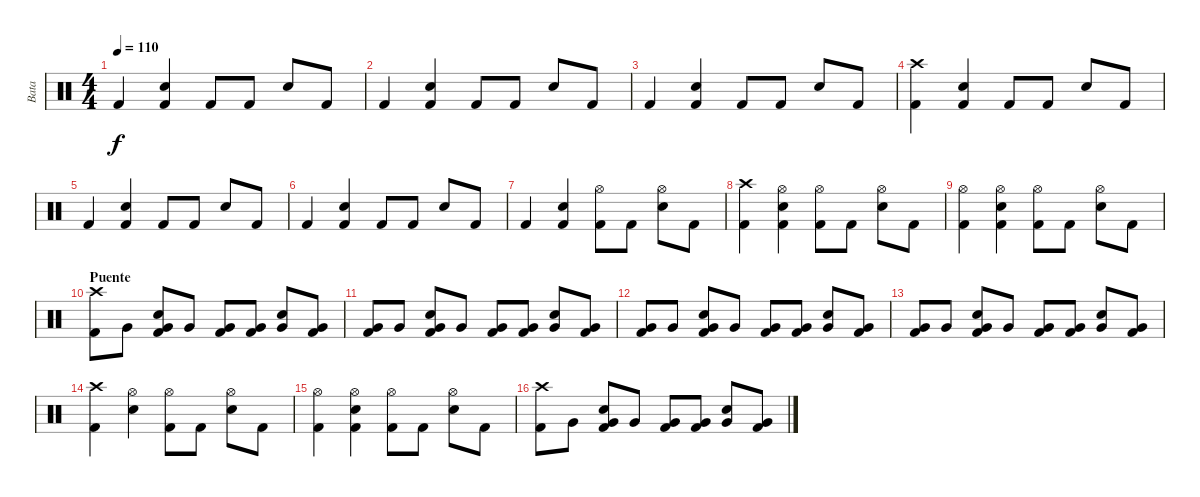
\track ("Bata" "Bata") {instrument percussion}
\staff {score}
\articulation defaults
\ts (4 4)
\tempo 110
\clef neutral
\ks c "Kick (hit) 2".4{dy f}
("Kick (hit) 2" "Snare (hit) 2").4 "Kick (hit) 2".8 "Kick (hit) 2".8 "Snare (hit) 2".8 "Kick (hit) 2".8 |
"Kick (hit) 2".4 ("Kick (hit) 2" "Snare (hit) 2").4 "Kick (hit) 2".8 "Kick (hit) 2".8 "Snare (hit) 2".8 "Kick (hit) 2".8 |
"Kick (hit) 2".4 ("Kick (hit) 2" "Electric Snare (hit)").4 "Kick (hit) 2".8 "Kick (hit) 2".8 "Electric Snare (hit)".8 "Kick (hit) 2".8 |
("Kick (hit) 2" "Crash high (hit)").4 ("Kick (hit) 2" "Snare (hit) 2").4 "Kick (hit) 2".8 "Kick (hit) 2".8 "Snare (hit) 2".8 "Kick (hit) 2".8 |
"Kick (hit) 2".4 ("Kick (hit) 2" "Snare (hit) 2").4 "Kick (hit) 2".8 "Kick (hit) 2".8 "Snare (hit) 2".8 "Kick (hit) 2".8 |
"Kick (hit) 2".4 ("Kick (hit) 2" "Snare (hit) 2").4 "Kick (hit) 2".8 "Kick (hit) 2".8 "Snare (hit) 2".8 "Kick (hit) 2".8 |
"Kick (hit) 2".4 ("Kick (hit) 2" "Snare (hit) 2").4 ("Kick (hit) 2" "Hi-Hat (open)").8 "Kick (hit) 2".8 ("Snare (hit) 2" "Hi-Hat (open)").8 "Kick (hit) 2".8 |
("Kick (hit) 2" "Crash high (hit)").4 ("Kick (hit) 2" "Snare (hit) 2" "Hi-Hat (open)").4 ("Kick (hit) 2" "Hi-Hat (open)").8 "Kick (hit) 2".8 ("Snare (hit) 2" "Hi-Hat (open)").8 "Kick (hit) 2".8 |
("Kick (hit) 2" "Hi-Hat (open)").4 ("Kick (hit) 2" "Snare (hit) 2" "Hi-Hat (open)").4 ("Kick (hit) 2" "Hi-Hat (open)").8 "Kick (hit) 2".8 ("Snare (hit) 2" "Hi-Hat (open)").8 "Kick (hit) 2".8 |
\section ("" "Puente")
("Kick (hit) 2" "Crash high (hit)").8 "Very Low Tom (hit)".8 ("Kick (hit) 2" "Snare (hit) 2" "Very Low Tom (hit)").8 "Very Low Tom (hit)".8 ("Kick (hit) 2" "Very Low Tom (hit)").8 ("Kick (hit) 2" "Very Low Tom (hit)").8 ("Snare (hit) 2" "Very Low Tom (hit)").8 ("Kick (hit) 2" "Very Low Tom (hit)").8 |
("Kick (hit) 2" "Very Low Tom (hit)").8 "Very Low Tom (hit)".8 ("Kick (hit) 2" "Snare (hit) 2" "Very Low Tom (hit)").8 "Very Low Tom (hit)".8 ("Kick (hit) 2" "Very Low Tom (hit)").8 ("Kick (hit) 2" "Very Low Tom (hit)").8 ("Snare (hit) 2" "Very Low Tom (hit)").8 ("Kick (hit) 2" "Very Low Tom (hit)").8 |
("Kick (hit) 2" "Very Low Tom (hit)").8 "Very Low Tom (hit)".8 ("Kick (hit) 2" "Snare (hit) 2" "Very Low Tom (hit)").8 "Very Low Tom (hit)".8 ("Kick (hit) 2" "Very Low Tom (hit)").8 ("Kick (hit) 2" "Very Low Tom (hit)").8 ("Snare (hit) 2" "Very Low Tom (hit)").8 ("Kick (hit) 2" "Very Low Tom (hit)").8 |
("Kick (hit) 2" "Very Low Tom (hit)").8 "Very Low Tom (hit)".8 ("Kick (hit) 2" "Snare (hit) 2" "Very Low Tom (hit)").8 "Very Low Tom (hit)".8 ("Kick (hit) 2" "Very Low Tom (hit)").8 ("Kick (hit) 2" "Very Low Tom (hit)").8 ("Snare (hit) 2" "Very Low Tom (hit)").8 ("Kick (hit) 2" "Very Low Tom (hit)").8 |
("Kick (hit) 2" "Crash high (hit)").4 ("Snare (hit) 2" "Hi-Hat (open)").4 ("Kick (hit) 2" "Hi-Hat (open)").8 "Kick (hit) 2".8 ("Snare (hit) 2" "Hi-Hat (open)").8 "Kick (hit) 2".8 |
("Kick (hit) 2" "Hi-Hat (open)").4 ("Kick (hit) 2" "Snare (hit) 2" "Hi-Hat (open)").4 ("Kick (hit) 2" "Hi-Hat (open)").8 "Kick (hit) 2".8 ("Snare (hit) 2" "Hi-Hat (open)").8 "Kick (hit) 2".8 |
("Kick (hit) 2" "Crash high (hit)").8 "Very Low Tom (hit)".8 ("Kick (hit) 2" "Snare (hit) 2" "Very Low Tom (hit)").8 "Very Low Tom (hit)".8 ("Kick (hit) 2" "Very Low Tom (hit)").8 ("Kick (hit) 2" "Very Low Tom (hit)").8 ("Snare (hit) 2" "Very Low Tom (hit)").8 ("Kick (hit) 2" "Very Low Tom (hit)").8
